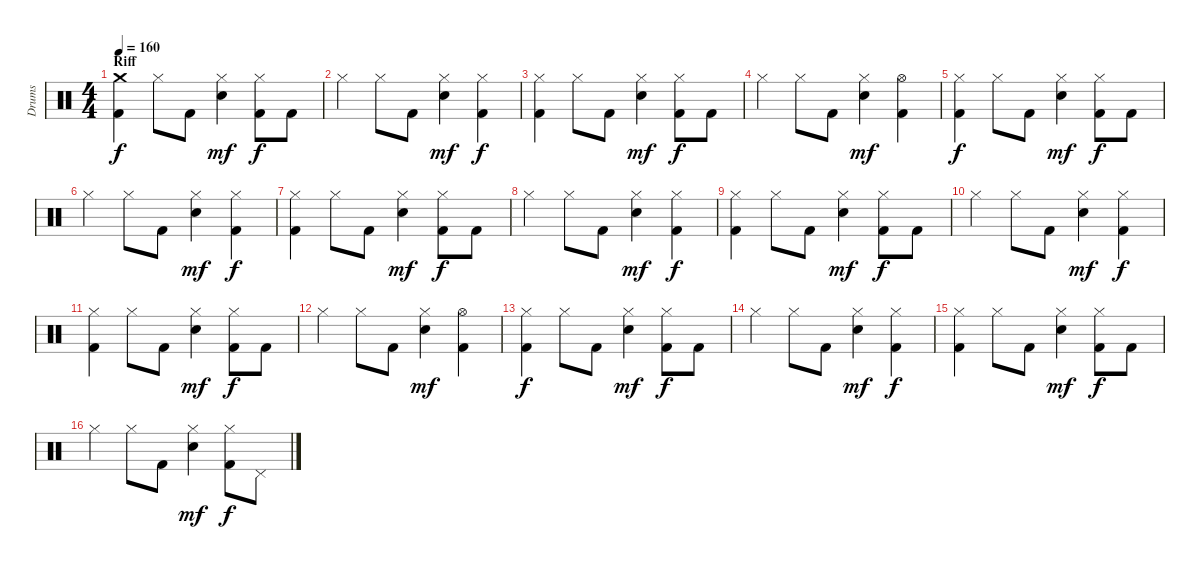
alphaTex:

\track ("Drums" "Drums") {instrument percussion}
\staff {score}
\articulation defaults
\ts (4 4)
\section ("" "Riff")
\tempo 160
\clef neutral
\ks c
("Crash medium (hit)" "Kick (hit) 2").4{dy f} "Hi-Hat (closed)".8 "Kick (hit) 2".8 ("Hi-Hat (closed)" "Electric Snare (hit)").4{dy mf} ("Hi-Hat (closed)" "Kick (hit) 2").8{dy f} "Kick (hit) 2".8 |
"Hi-Hat (closed)".4 "Hi-Hat (closed)".8 "Kick (hit) 2".8 ("Hi-Hat (closed)" "Electric Snare (hit)").4{dy mf} ("Hi-Hat (closed)" "Kick (hit) 2").4{dy f} |
("Hi-Hat (closed)" "Kick (hit) 2").4 "Hi-Hat (closed)".8 "Kick (hit) 2".8 ("Hi-Hat (closed)" "Electric Snare (hit)").4{dy mf} ("Hi-Hat (closed)" "Kick (hit) 2").8{dy f} "Kick (hit) 2".8 |
"Hi-Hat (closed)".4 "Hi-Hat (closed)".8 "Kick (hit) 2".8 ("Hi-Hat (closed)" "Electric Snare (hit)").4{dy mf} ("Hi-Hat (open)" "Kick (hit) 2").4 |
("Hi-Hat (closed)" "Kick (hit) 2").4{dy f} "Hi-Hat (closed)".8 "Kick (hit) 2".8 ("Hi-Hat (closed)" "Electric Snare (hit)").4{dy mf} ("Hi-Hat (closed)" "Kick (hit) 2").8{dy f} "Kick (hit) 2".8 |
"Hi-Hat (closed)".4 "Hi-Hat (closed)".8 "Kick (hit) 2".8 ("Hi-Hat (closed)" "Electric Snare (hit)").4{dy mf} ("Hi-Hat (closed)" "Kick (hit) 2").4{dy f} |
("Hi-Hat (closed)" "Kick (hit) 2").4 "Hi-Hat (closed)".8 "Kick (hit) 2".8 ("Hi-Hat (closed)" "Electric Snare (hit)").4{dy mf} ("Hi-Hat (closed)" "Kick (hit) 2").8{dy f} "Kick (hit) 2".8 |
"Hi-Hat (closed)".4 "Hi-Hat (closed)".8 "Kick (hit) 2".8 ("Hi-Hat (closed)" "Electric Snare (hit)").4{dy mf} ("Hi-Hat (closed)" "Kick (hit) 2").4{dy f} |
("Hi-Hat (closed)" "Kick (hit) 2").4 "Hi-Hat (closed)".8 "Kick (hit) 2".8 ("Hi-Hat (closed)" "Electric Snare (hit)").4{dy mf} ("Hi-Hat (closed)" "Kick (hit) 2").8{dy f} "Kick (hit) 2".8 |
"Hi-Hat (closed)".4 "Hi-Hat (closed)".8 "Kick (hit) 2".8 ("Hi-Hat (closed)" "Electric Snare (hit)").4{dy mf} ("Hi-Hat (closed)" "Kick (hit) 2").4{dy f} |
("Hi-Hat (closed)" "Kick (hit) 2").4 "Hi-Hat (closed)".8 "Kick (hit) 2".8 ("Hi-Hat (closed)" "Electric Snare (hit)").4{dy mf} ("Hi-Hat (closed)" "Kick (hit) 2").8{dy f} "Kick (hit) 2".8 |
"Hi-Hat (closed)".4 "Hi-Hat (closed)".8 "Kick (hit) 2".8 ("Hi-Hat (closed)" "Electric Snare (hit)").4{dy mf} ("Hi-Hat (open)" "Kick (hit) 2").4 |
("Hi-Hat (closed)" "Kick (hit) 2").4{dy f} "Hi-Hat (closed)".8 "Kick (hit) 2".8 ("Hi-Hat (closed)" "Electric Snare (hit)").4{dy mf} ("Hi-Hat (closed)" "Kick (hit) 2").8{dy f} "Kick (hit) 2".8 |
"Hi-Hat (closed)".4 "Hi-Hat (closed)".8 "Kick (hit) 2".8 ("Hi-Hat (closed)" "Electric Snare (hit)").4{dy mf} ("Hi-Hat (closed)" "Kick (hit) 2").4{dy f} |
("Hi-Hat (closed)" "Kick (hit) 2").4 "Hi-Hat (closed)".8 "Kick (hit) 2".8 ("Hi-Hat (closed)" "Electric Snare (hit)").4{dy mf} ("Hi-Hat (closed)" "Kick (hit) 2").8{dy f} "Kick (hit) 2".8 |
"Hi-Hat (closed)".4 "Hi-Hat (closed)".8 "Kick (hit) 2".8 ("Hi-Hat (closed)" "Electric Snare (hit)").4{dy mf} ("Hi-Hat (closed)" "Kick (hit) 2").8{dy f} "Pedal Hi-Hat (hit)".8
